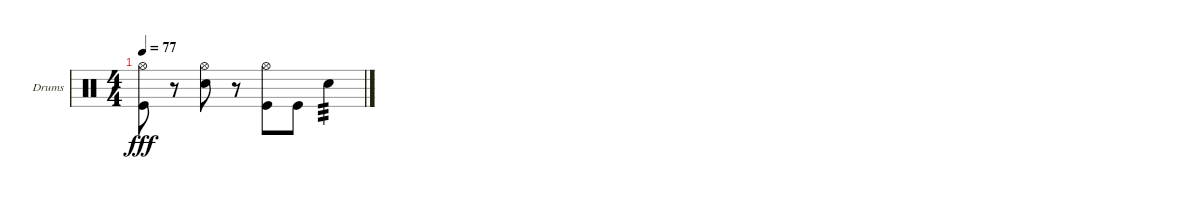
\bracketExtendMode groupsimilarinstruments
\firstSystemTrackNameOrientation horizontal
\otherSystemsTrackNameOrientation horizontal
\track ("Drumkit" "Drums") {instrument percussion}
\staff {score}
\articulation defaults
\ts (4 4)
\tempo 77
\clef neutral
\ks c
("Hi-Hat (open)" "Kick (hit)").8{dy fff} r.8 ("Hi-Hat (open)" "Snare (hit) 2").8 r.8 ("Hi-Hat (open)" "Kick (hit)").8 "Kick (hit)".8 "Snare (hit) 2".4{tp 3}
